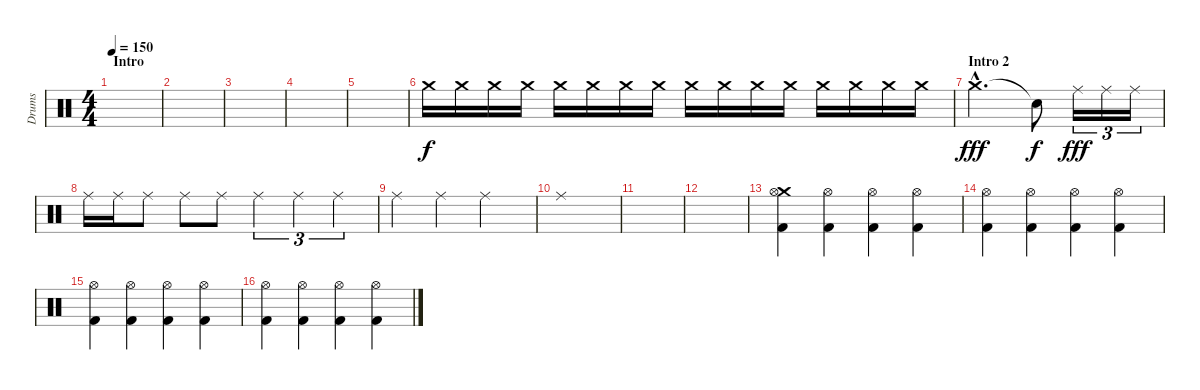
\track ("Drums" "Drums") {instrument percussion}
\staff {score}
\articulation defaults
\ts (4 4)
\section ("" "Intro")
\tempo 150
\clef neutral
\ks c
|
|
|
|
|
"Crash medium (hit)".16{volume 16} "Crash medium (hit)".16 "Crash medium (hit)".16 "Crash medium (hit)".16 "Crash medium (hit)".16 "Crash medium (hit)".16 "Crash medium (hit)".16 "Crash medium (hit)".16 "Crash medium (hit)".16 "Crash medium (hit)".16 "Crash medium (hit)".16 "Crash medium (hit)".16 "Crash medium (hit)".16 "Crash medium (hit)".16 "Crash medium (hit)".16 "Crash medium (hit)".16 |
\section ("" "Intro 2")
"Crash medium (hit)"{hac}.2{d dy fff volume 16} "Snare (hit)"{t}.8{dy f} "Ride (middle)".16{tu (3 2) dy fff} "Ride (middle)".16{tu (3 2)} "Ride (middle)".16{tu (3 2)} |
"Ride (middle)".16 "Ride (middle)".16 "Ride (middle)".8 "Ride (middle)".8 "Ride (middle)".8 "Ride (middle)".4{tu (3 2)} "Ride (middle)".4{tu (3 2)} "Ride (middle)".4{tu (3 2)} |
"Ride (middle)".4 "Ride (middle)".4 "Ride (middle)".2 |
"Ride (middle)".1 |
|
|
("Kick (hit) 2" "Crash medium (hit)" "Hi-Hat (open)").4 ("Kick (hit) 2" "Hi-Hat (open)").4 ("Kick (hit) 2" "Hi-Hat (open)").4 ("Kick (hit) 2" "Hi-Hat (open)").4 |
("Kick (hit) 2" "Hi-Hat (open)").4 ("Kick (hit) 2" "Hi-Hat (open)").4 ("Kick (hit) 2" "Hi-Hat (open)").4 ("Kick (hit) 2" "Hi-Hat (open)").4 |
("Kick (hit) 2" "Hi-Hat (open)").4 ("Kick (hit) 2" "Hi-Hat (open)").4 ("Kick (hit) 2" "Hi-Hat (open)").4 ("Kick (hit) 2" "Hi-Hat (open)").4 |
("Kick (hit) 2" "Hi-Hat (open)").4 ("Kick (hit) 2" "Hi-Hat (open)").4 ("Kick (hit) 2" "Hi-Hat (open)").4 ("Kick (hit) 2" "Hi-Hat (open)").4
